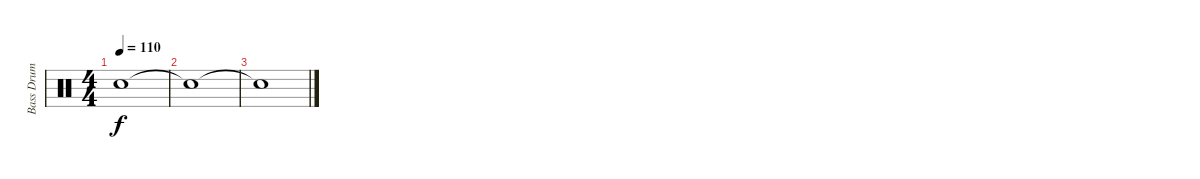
\track ("Bass Drum" "Bass Drum") {instrument percussion}
\staff {score}
\articulation defaults
\ts (4 4)
\tempo 110
\clef neutral
\ks c "Snare (hit)"{t}.1{dy f}
|
"Snare (hit)"{t}.1 |
"Snare (hit)"{t}.1
